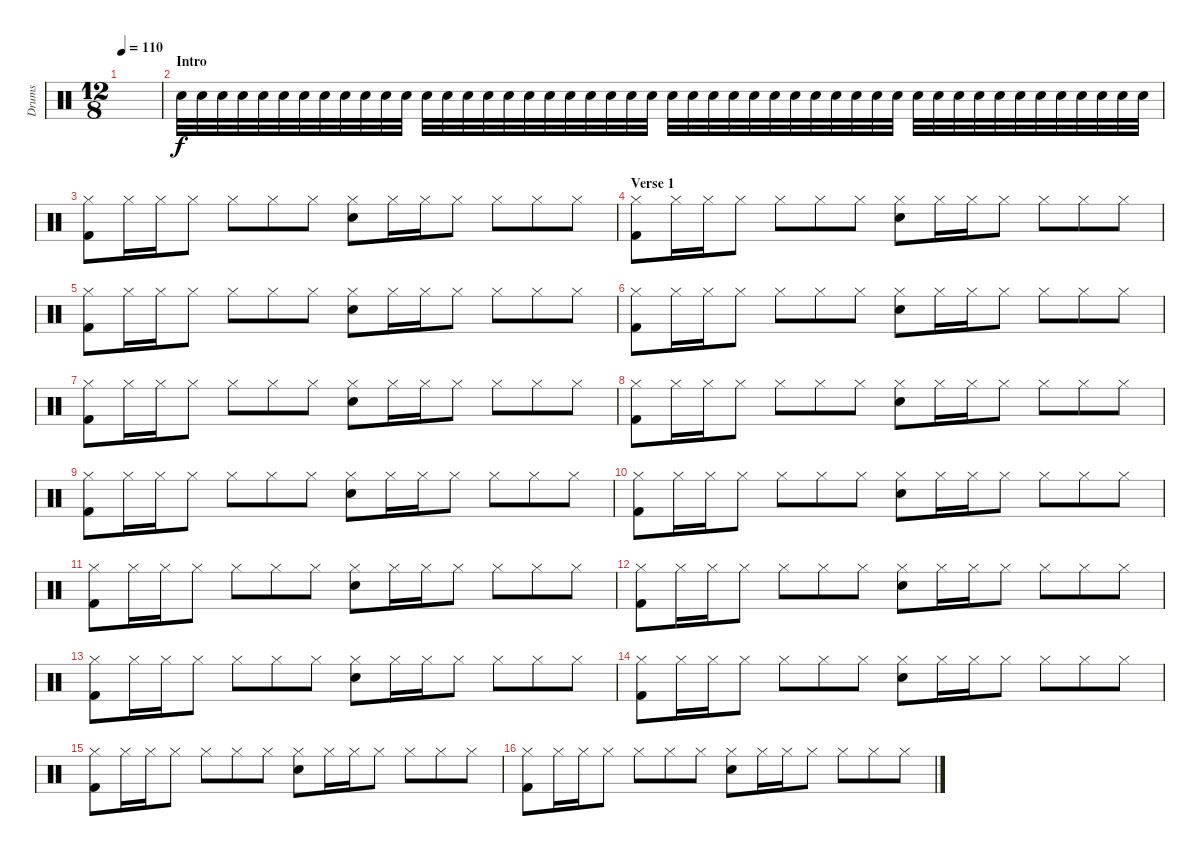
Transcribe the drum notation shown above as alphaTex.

\track ("Drums" "Drums") {instrument percussion}
\staff {score}
\articulation defaults
\ts (12 8)
\tempo 110
\clef neutral
\ks c
|
\section ("" "Intro")
"Snare (hit) 2".32 "Snare (hit) 2".32 "Snare (hit) 2".32 "Snare (hit) 2".32 "Snare (hit) 2".32 "Snare (hit) 2".32 "Snare (hit) 2".32 "Snare (hit) 2".32 "Snare (hit) 2".32 "Snare (hit) 2".32 "Snare (hit) 2".32 "Snare (hit) 2".32 "Snare (hit) 2".32 "Snare (hit) 2".32 "Snare (hit) 2".32 "Snare (hit) 2".32 "Snare (hit) 2".32 "Snare (hit) 2".32 "Snare (hit) 2".32 "Snare (hit) 2".32 "Snare (hit) 2".32 "Snare (hit) 2".32 "Snare (hit) 2".32 "Snare (hit) 2".32 "Snare (hit) 2".32 "Snare (hit) 2".32 "Snare (hit) 2".32 "Snare (hit) 2".32 "Snare (hit) 2".32 "Snare (hit) 2".32 "Snare (hit) 2".32 "Snare (hit) 2".32 "Snare (hit) 2".32 "Snare (hit) 2".32 "Snare (hit) 2".32 "Snare (hit) 2".32 "Snare (hit) 2".32 "Snare (hit) 2".32 "Snare (hit) 2".32 "Snare (hit) 2".32 "Snare (hit) 2".32 "Snare (hit) 2".32 "Snare (hit) 2".32 "Snare (hit) 2".32 "Snare (hit) 2".32 "Snare (hit) 2".32 "Snare (hit) 2".32 "Snare (hit) 2".32 |
("Hi-Hat (closed)" "Kick (hit) 2").8 "Hi-Hat (closed)".16 "Hi-Hat (closed)".16 "Hi-Hat (closed)".8 "Hi-Hat (closed)".8 "Hi-Hat (closed)".8 "Hi-Hat (closed)".8 ("Hi-Hat (closed)" "Snare (hit) 2").8 "Hi-Hat (closed)".16 "Hi-Hat (closed)".16 "Hi-Hat (closed)".8 "Hi-Hat (closed)".8 "Hi-Hat (closed)".8 "Hi-Hat (closed)".8 |
\section ("" "Verse 1")
("Hi-Hat (closed)" "Kick (hit) 2").8 "Hi-Hat (closed)".16 "Hi-Hat (closed)".16 "Hi-Hat (closed)".8 "Hi-Hat (closed)".8 "Hi-Hat (closed)".8 "Hi-Hat (closed)".8 ("Hi-Hat (closed)" "Snare (hit) 2").8 "Hi-Hat (closed)".16 "Hi-Hat (closed)".16 "Hi-Hat (closed)".8 "Hi-Hat (closed)".8 "Hi-Hat (closed)".8 "Hi-Hat (closed)".8 |
("Hi-Hat (closed)" "Kick (hit) 2").8 "Hi-Hat (closed)".16 "Hi-Hat (closed)".16 "Hi-Hat (closed)".8 "Hi-Hat (closed)".8 "Hi-Hat (closed)".8 "Hi-Hat (closed)".8 ("Hi-Hat (closed)" "Snare (hit) 2").8 "Hi-Hat (closed)".16 "Hi-Hat (closed)".16 "Hi-Hat (closed)".8 "Hi-Hat (closed)".8 "Hi-Hat (closed)".8 "Hi-Hat (closed)".8 |
("Hi-Hat (closed)" "Kick (hit) 2").8 "Hi-Hat (closed)".16 "Hi-Hat (closed)".16 "Hi-Hat (closed)".8 "Hi-Hat (closed)".8 "Hi-Hat (closed)".8 "Hi-Hat (closed)".8 ("Hi-Hat (closed)" "Snare (hit) 2").8 "Hi-Hat (closed)".16 "Hi-Hat (closed)".16 "Hi-Hat (closed)".8 "Hi-Hat (closed)".8 "Hi-Hat (closed)".8 "Hi-Hat (closed)".8 |
("Hi-Hat (closed)" "Kick (hit) 2").8 "Hi-Hat (closed)".16 "Hi-Hat (closed)".16 "Hi-Hat (closed)".8 "Hi-Hat (closed)".8 "Hi-Hat (closed)".8 "Hi-Hat (closed)".8 ("Hi-Hat (closed)" "Snare (hit) 2").8 "Hi-Hat (closed)".16 "Hi-Hat (closed)".16 "Hi-Hat (closed)".8 "Hi-Hat (closed)".8 "Hi-Hat (closed)".8 "Hi-Hat (closed)".8 |
("Hi-Hat (closed)" "Kick (hit) 2").8 "Hi-Hat (closed)".16 "Hi-Hat (closed)".16 "Hi-Hat (closed)".8 "Hi-Hat (closed)".8 "Hi-Hat (closed)".8 "Hi-Hat (closed)".8 ("Hi-Hat (closed)" "Snare (hit) 2").8 "Hi-Hat (closed)".16 "Hi-Hat (closed)".16 "Hi-Hat (closed)".8 "Hi-Hat (closed)".8 "Hi-Hat (closed)".8 "Hi-Hat (closed)".8 |
("Hi-Hat (closed)" "Kick (hit) 2").8 "Hi-Hat (closed)".16 "Hi-Hat (closed)".16 "Hi-Hat (closed)".8 "Hi-Hat (closed)".8 "Hi-Hat (closed)".8 "Hi-Hat (closed)".8 ("Hi-Hat (closed)" "Snare (hit) 2").8 "Hi-Hat (closed)".16 "Hi-Hat (closed)".16 "Hi-Hat (closed)".8 "Hi-Hat (closed)".8 "Hi-Hat (closed)".8 "Hi-Hat (closed)".8 |
("Hi-Hat (closed)" "Kick (hit) 2").8 "Hi-Hat (closed)".16 "Hi-Hat (closed)".16 "Hi-Hat (closed)".8 "Hi-Hat (closed)".8 "Hi-Hat (closed)".8 "Hi-Hat (closed)".8 ("Hi-Hat (closed)" "Snare (hit) 2").8 "Hi-Hat (closed)".16 "Hi-Hat (closed)".16 "Hi-Hat (closed)".8 "Hi-Hat (closed)".8 "Hi-Hat (closed)".8 "Hi-Hat (closed)".8 |
("Hi-Hat (closed)" "Kick (hit) 2").8 "Hi-Hat (closed)".16 "Hi-Hat (closed)".16 "Hi-Hat (closed)".8 "Hi-Hat (closed)".8 "Hi-Hat (closed)".8 "Hi-Hat (closed)".8 ("Hi-Hat (closed)" "Snare (hit) 2").8 "Hi-Hat (closed)".16 "Hi-Hat (closed)".16 "Hi-Hat (closed)".8 "Hi-Hat (closed)".8 "Hi-Hat (closed)".8 "Hi-Hat (closed)".8 |
("Hi-Hat (closed)" "Kick (hit) 2").8 "Hi-Hat (closed)".16 "Hi-Hat (closed)".16 "Hi-Hat (closed)".8 "Hi-Hat (closed)".8 "Hi-Hat (closed)".8 "Hi-Hat (closed)".8 ("Hi-Hat (closed)" "Snare (hit) 2").8 "Hi-Hat (closed)".16 "Hi-Hat (closed)".16 "Hi-Hat (closed)".8 "Hi-Hat (closed)".8 "Hi-Hat (closed)".8 "Hi-Hat (closed)".8 |
("Hi-Hat (closed)" "Kick (hit) 2").8 "Hi-Hat (closed)".16 "Hi-Hat (closed)".16 "Hi-Hat (closed)".8 "Hi-Hat (closed)".8 "Hi-Hat (closed)".8 "Hi-Hat (closed)".8 ("Hi-Hat (closed)" "Snare (hit) 2").8 "Hi-Hat (closed)".16 "Hi-Hat (closed)".16 "Hi-Hat (closed)".8 "Hi-Hat (closed)".8 "Hi-Hat (closed)".8 "Hi-Hat (closed)".8 |
("Hi-Hat (closed)" "Kick (hit) 2").8 "Hi-Hat (closed)".16 "Hi-Hat (closed)".16 "Hi-Hat (closed)".8 "Hi-Hat (closed)".8 "Hi-Hat (closed)".8 "Hi-Hat (closed)".8 ("Hi-Hat (closed)" "Snare (hit) 2").8 "Hi-Hat (closed)".16 "Hi-Hat (closed)".16 "Hi-Hat (closed)".8 "Hi-Hat (closed)".8 "Hi-Hat (closed)".8 "Hi-Hat (closed)".8 |
("Hi-Hat (closed)" "Kick (hit) 2").8 "Hi-Hat (closed)".16 "Hi-Hat (closed)".16 "Hi-Hat (closed)".8 "Hi-Hat (closed)".8 "Hi-Hat (closed)".8 "Hi-Hat (closed)".8 ("Hi-Hat (closed)" "Snare (hit) 2").8 "Hi-Hat (closed)".16 "Hi-Hat (closed)".16 "Hi-Hat (closed)".8 "Hi-Hat (closed)".8 "Hi-Hat (closed)".8 "Hi-Hat (closed)".8 |
("Hi-Hat (closed)" "Kick (hit) 2").8 "Hi-Hat (closed)".16 "Hi-Hat (closed)".16 "Hi-Hat (closed)".8 "Hi-Hat (closed)".8 "Hi-Hat (closed)".8 "Hi-Hat (closed)".8 ("Hi-Hat (closed)" "Snare (hit) 2").8 "Hi-Hat (closed)".16 "Hi-Hat (closed)".16 "Hi-Hat (closed)".8 "Hi-Hat (closed)".8 "Hi-Hat (closed)".8 "Hi-Hat (closed)".8
